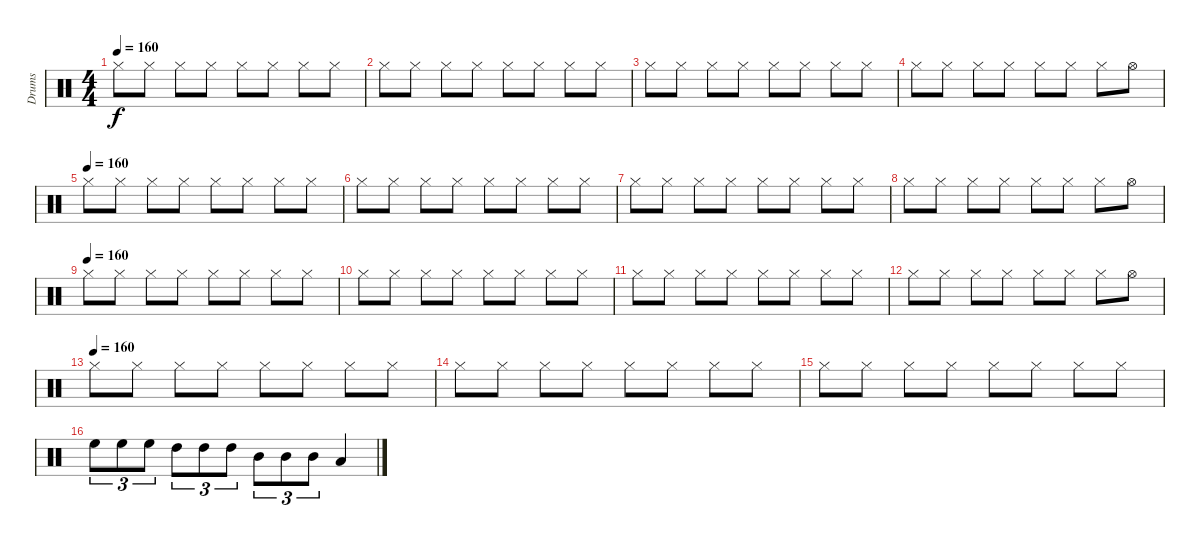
\track ("Drums" "Drums") {instrument percussion}
\staff {score}
\articulation defaults
\ts (4 4)
\tempo 160
\clef neutral
\ks c "Hi-Hat (closed)".8{dy f} "Hi-Hat (closed)".8 "Hi-Hat (closed)".8 "Hi-Hat (closed)".8 "Hi-Hat (closed)".8 "Hi-Hat (closed)".8 "Hi-Hat (closed)".8 "Hi-Hat (closed)".8
|
"Hi-Hat (closed)".8 "Hi-Hat (closed)".8 "Hi-Hat (closed)".8 "Hi-Hat (closed)".8 "Hi-Hat (closed)".8 "Hi-Hat (closed)".8 "Hi-Hat (closed)".8 "Hi-Hat (closed)".8 |
"Hi-Hat (closed)".8 "Hi-Hat (closed)".8 "Hi-Hat (closed)".8 "Hi-Hat (closed)".8 "Hi-Hat (closed)".8 "Hi-Hat (closed)".8 "Hi-Hat (closed)".8 "Hi-Hat (closed)".8 |
"Hi-Hat (closed)".8 "Hi-Hat (closed)".8 "Hi-Hat (closed)".8 "Hi-Hat (closed)".8 "Hi-Hat (closed)".8 "Hi-Hat (closed)".8 "Hi-Hat (closed)".8 "Hi-Hat (open)".8 |
\tempo (160)
"Hi-Hat (closed)".8 "Hi-Hat (closed)".8 "Hi-Hat (closed)".8 "Hi-Hat (closed)".8 "Hi-Hat (closed)".8 "Hi-Hat (closed)".8 "Hi-Hat (closed)".8 "Hi-Hat (closed)".8 |
"Hi-Hat (closed)".8 "Hi-Hat (closed)".8 "Hi-Hat (closed)".8 "Hi-Hat (closed)".8 "Hi-Hat (closed)".8 "Hi-Hat (closed)".8 "Hi-Hat (closed)".8 "Hi-Hat (closed)".8 |
"Hi-Hat (closed)".8 "Hi-Hat (closed)".8 "Hi-Hat (closed)".8 "Hi-Hat (closed)".8 "Hi-Hat (closed)".8 "Hi-Hat (closed)".8 "Hi-Hat (closed)".8 "Hi-Hat (closed)".8 |
"Hi-Hat (closed)".8 "Hi-Hat (closed)".8 "Hi-Hat (closed)".8 "Hi-Hat (closed)".8 "Hi-Hat (closed)".8 "Hi-Hat (closed)".8 "Hi-Hat (closed)".8 "Hi-Hat (open)".8 |
\tempo (160)
"Hi-Hat (closed)".8 "Hi-Hat (closed)".8 "Hi-Hat (closed)".8 "Hi-Hat (closed)".8 "Hi-Hat (closed)".8 "Hi-Hat (closed)".8 "Hi-Hat (closed)".8 "Hi-Hat (closed)".8 |
"Hi-Hat (closed)".8 "Hi-Hat (closed)".8 "Hi-Hat (closed)".8 "Hi-Hat (closed)".8 "Hi-Hat (closed)".8 "Hi-Hat (closed)".8 "Hi-Hat (closed)".8 "Hi-Hat (closed)".8 |
"Hi-Hat (closed)".8 "Hi-Hat (closed)".8 "Hi-Hat (closed)".8 "Hi-Hat (closed)".8 "Hi-Hat (closed)".8 "Hi-Hat (closed)".8 "Hi-Hat (closed)".8 "Hi-Hat (closed)".8 |
"Hi-Hat (closed)".8 "Hi-Hat (closed)".8 "Hi-Hat (closed)".8 "Hi-Hat (closed)".8 "Hi-Hat (closed)".8 "Hi-Hat (closed)".8 "Hi-Hat (closed)".8 "Hi-Hat (open)".8 |
\tempo (160)
"Hi-Hat (closed)".8 "Hi-Hat (closed)".8 "Hi-Hat (closed)".8 "Hi-Hat (closed)".8 "Hi-Hat (closed)".8 "Hi-Hat (closed)".8 "Hi-Hat (closed)".8 "Hi-Hat (closed)".8 |
"Hi-Hat (closed)".8 "Hi-Hat (closed)".8 "Hi-Hat (closed)".8 "Hi-Hat (closed)".8 "Hi-Hat (closed)".8 "Hi-Hat (closed)".8 "Hi-Hat (closed)".8 "Hi-Hat (closed)".8 |
"Hi-Hat (closed)".8 "Hi-Hat (closed)".8 "Hi-Hat (closed)".8 "Hi-Hat (closed)".8 "Hi-Hat (closed)".8 "Hi-Hat (closed)".8 "Hi-Hat (closed)".8 "Hi-Hat (closed)".8 |
"High Floor Tom (hit)".8{tu (3 2)} "High Floor Tom (hit)".8{tu (3 2)} "High Floor Tom (hit)".8{tu (3 2)} "High Tom (hit)".8{tu (3 2)} "High Tom (hit)".8{tu (3 2)} "High Tom (hit)".8{tu (3 2)} "Mid Tom (hit)".8{tu (3 2)} "Mid Tom (hit)".8{tu (3 2)} "Mid Tom (hit)".8{tu (3 2)} "Low Tom (hit)".4
